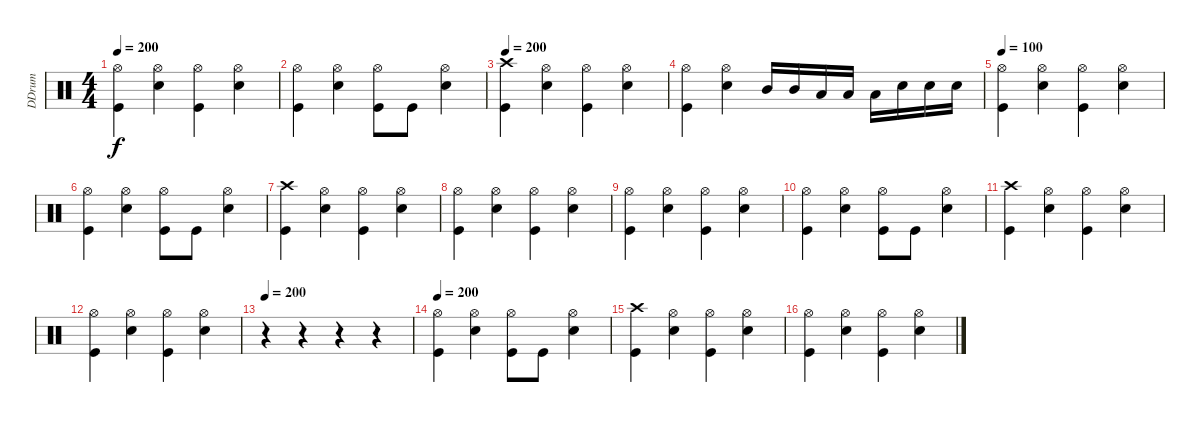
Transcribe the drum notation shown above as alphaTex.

\track ("DDrum" "DDrum") {instrument percussion}
\staff {score}
\articulation defaults
\ts (4 4)
\tempo 200
\clef neutral
\ks c
("Hi-Hat (open)" "Kick (hit)").4{dy f} ("Hi-Hat (open)" "Electric Snare (hit)").4 ("Hi-Hat (open)" "Kick (hit)").4 ("Hi-Hat (open)" "Electric Snare (hit)").4 |
("Hi-Hat (open)" "Kick (hit)").4 ("Hi-Hat (open)" "Electric Snare (hit)").4 ("Hi-Hat (open)" "Kick (hit)").8 "Kick (hit)".8 ("Hi-Hat (open)" "Electric Snare (hit)").4 |
\tempo 200
("Crash high (hit)" "Kick (hit)").4 ("Hi-Hat (open)" "Electric Snare (hit)").4 ("Hi-Hat (open)" "Kick (hit)").4 ("Hi-Hat (open)" "Electric Snare (hit)").4 |
("Hi-Hat (open)" "Kick (hit)").4 ("Hi-Hat (open)" "Electric Snare (hit)").4 "Mid Tom (hit)".16 "Mid Tom (hit)".16 "Low Tom (hit)".16 "Low Tom (hit)".16 "Low Tom (hit)".16 "Electric Snare (hit)".16 "Electric Snare (hit)".16 "Electric Snare (hit)".16 |
\tempo 100
("Hi-Hat (open)" "Kick (hit)").4 ("Hi-Hat (open)" "Electric Snare (hit)").4 ("Hi-Hat (open)" "Kick (hit)").4 ("Hi-Hat (open)" "Electric Snare (hit)").4 |
("Hi-Hat (open)" "Kick (hit)").4 ("Hi-Hat (open)" "Electric Snare (hit)").4 ("Hi-Hat (open)" "Kick (hit)").8 "Kick (hit)".8 ("Hi-Hat (open)" "Electric Snare (hit)").4 |
("Crash high (hit)" "Kick (hit)").4 ("Hi-Hat (open)" "Electric Snare (hit)").4 ("Hi-Hat (open)" "Kick (hit)").4 ("Hi-Hat (open)" "Electric Snare (hit)").4 |
("Hi-Hat (open)" "Kick (hit)").4 ("Hi-Hat (open)" "Electric Snare (hit)").4 ("Hi-Hat (open)" "Kick (hit)").4 ("Hi-Hat (open)" "Electric Snare (hit)").4 |
("Hi-Hat (open)" "Kick (hit)").4 ("Hi-Hat (open)" "Electric Snare (hit)").4 ("Hi-Hat (open)" "Kick (hit)").4 ("Hi-Hat (open)" "Electric Snare (hit)").4 |
("Hi-Hat (open)" "Kick (hit)").4 ("Hi-Hat (open)" "Electric Snare (hit)").4 ("Hi-Hat (open)" "Kick (hit)").8 "Kick (hit)".8 ("Hi-Hat (open)" "Electric Snare (hit)").4 |
("Crash high (hit)" "Kick (hit)").4 ("Hi-Hat (open)" "Electric Snare (hit)").4 ("Hi-Hat (open)" "Kick (hit)").4 ("Hi-Hat (open)" "Electric Snare (hit)").4 |
("Hi-Hat (open)" "Kick (hit)").4 ("Hi-Hat (open)" "Electric Snare (hit)").4 ("Hi-Hat (open)" "Kick (hit)").4 ("Hi-Hat (open)" "Electric Snare (hit)").4 |
\tempo 200
r.4 r.4 r.4 r.4 |
\tempo 200
("Hi-Hat (open)" "Kick (hit)").4 ("Hi-Hat (open)" "Electric Snare (hit)").4 ("Hi-Hat (open)" "Kick (hit)").8 "Kick (hit)".8 ("Hi-Hat (open)" "Electric Snare (hit)").4 |
("Crash high (hit)" "Kick (hit)").4 ("Hi-Hat (open)" "Electric Snare (hit)").4 ("Hi-Hat (open)" "Kick (hit)").4 ("Hi-Hat (open)" "Electric Snare (hit)").4 |
("Hi-Hat (open)" "Kick (hit)").4 ("Hi-Hat (open)" "Electric Snare (hit)").4 ("Hi-Hat (open)" "Kick (hit)").4 ("Hi-Hat (open)" "Electric Snare (hit)").4
